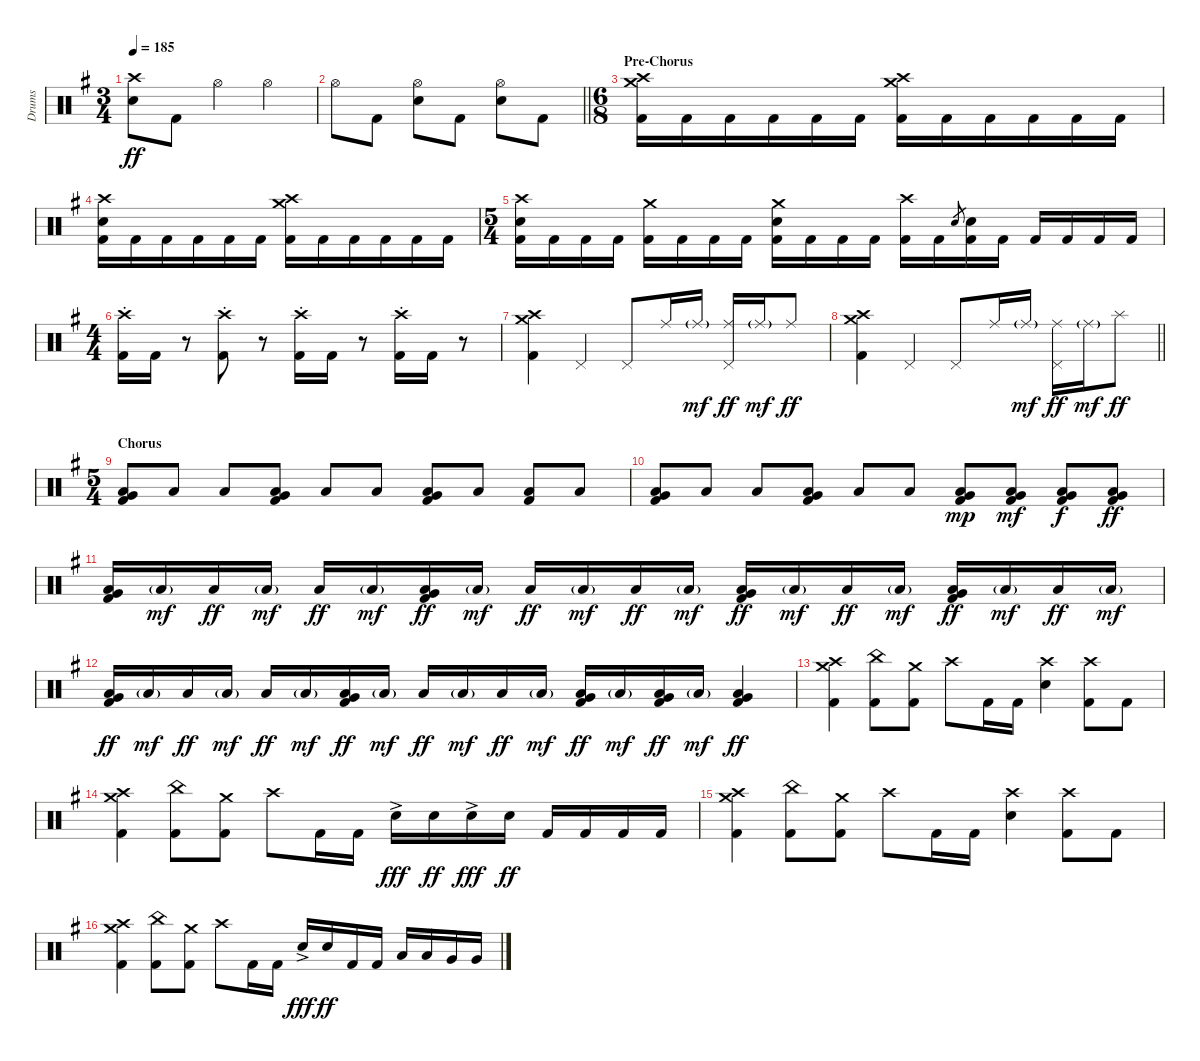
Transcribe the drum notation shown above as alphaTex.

\track ("Drums" "Drums") {instrument percussion}
\staff {score}
\articulation defaults
\ts (3 4)
\tempo 185
\clef neutral
\ks g
("Crash high (hit)" "Electric Snare (hit)").8{dy ff} "Kick (hit) 2".8 "Hi-Hat (open)".4 "Hi-Hat (open)".4 |
\barLineRight lightlight "Hi-Hat (open)".8 "Kick (hit) 2".8
("Hi-Hat (open)" "Electric Snare (hit)").8 "Kick (hit) 2".8 ("Hi-Hat (open)" "Electric Snare (hit)").8 "Kick (hit) 2".8 |
\ts (6 8)
\section ("" "Pre-Chorus")
("Crash medium (hit)" "Crash high (hit)" "Kick (hit) 2").16 "Kick (hit) 2".16 "Kick (hit) 2".16 "Kick (hit) 2".16 "Kick (hit) 2".16 "Kick (hit) 2".16 ("Crash medium (hit)" "Crash high (hit)" "Kick (hit) 2").16 "Kick (hit) 2".16 "Kick (hit) 2".16 "Kick (hit) 2".16 "Kick (hit) 2".16 "Kick (hit) 2".16 |
("Crash high (hit)" "Electric Snare (hit)" "Kick (hit) 2").16 "Kick (hit) 2".16 "Kick (hit) 2".16 "Kick (hit) 2".16 "Kick (hit) 2".16 "Kick (hit) 2".16 ("Crash medium (hit)" "Crash high (hit)" "Kick (hit) 2").16 "Kick (hit) 2".16 "Kick (hit) 2".16 "Kick (hit) 2".16 "Kick (hit) 2".16 "Kick (hit) 2".16 |
\ts (5 4)
("Crash high (hit)" "Electric Snare (hit)" "Kick (hit) 2").16 "Kick (hit) 2".16 "Kick (hit) 2".16 "Kick (hit) 2".16 ("Crash medium (hit)" "Kick (hit) 2").16 "Kick (hit) 2".16 "Kick (hit) 2".16 "Kick (hit) 2".16 ("Crash medium (hit)" "Electric Snare (hit)" "Kick (hit) 2").16 "Kick (hit) 2".16 "Kick (hit) 2".16 "Kick (hit) 2".16 ("Crash high (hit)" "Kick (hit) 2").16 "Kick (hit) 2".16 "Electric Snare (hit)".8{gr} ("Electric Snare (hit)" "Kick (hit) 2").16 "Kick (hit) 2".16 "Kick (hit) 2".16 "Kick (hit) 2".16 "Kick (hit) 2".16 "Kick (hit) 2".16 |
\ts (4 4)
("Crash high (hit)"{st} "Kick (hit) 2").16 "Kick (hit) 2".16 r.8{volume 0} ("Crash high (hit)"{st} "Kick (hit) 2").8{volume 14} r.8{volume 0} ("Crash high (hit)"{st} "Kick (hit) 2").16{volume 14} "Kick (hit) 2".16 r.8{volume 0} ("Crash high (hit)"{st} "Kick (hit) 2").16{volume 14} "Kick (hit) 2".16 r.8{volume 0} |
("Crash medium (hit)" "Crash high (hit)" "Kick (hit) 2").4{volume 14} "Pedal Hi-Hat (hit)".4 "Pedal Hi-Hat (hit)".8 "Ride (middle)".16 "Ride (middle)"{g}.16{dy mf} ("Ride (middle)" "Pedal Hi-Hat (hit)").16{dy ff} "Ride (middle)"{g}.16{dy mf} "Ride (middle)".8{dy ff} |
\barLineRight lightlight
("Crash medium (hit)" "Crash high (hit)" "Kick (hit) 2").4 "Pedal Hi-Hat (hit)".4 "Pedal Hi-Hat (hit)".8 "Ride (middle)".16 "Ride (middle)"{g}.16{dy mf} ("Ride (middle)" "Pedal Hi-Hat (hit)").16{dy ff} "Ride (middle)"{g}.16{dy mf} "Splash (hit)".8{dy ff} |
\ts (5 4)
\section ("" "Chorus")
("Low Tom (hit)" "Very Low Tom (hit)" "Kick (hit) 2").8{volume 12} "Low Tom (hit)".8 "Low Tom (hit)".8 ("Low Tom (hit)" "Very Low Tom (hit)" "Kick (hit) 2").8 "Low Tom (hit)".8 "Low Tom (hit)".8 ("Low Tom (hit)" "Very Low Tom (hit)" "Kick (hit) 2").8 "Low Tom (hit)".8 ("Low Tom (hit)" "Kick (hit) 2").8 "Low Tom (hit)".8 |
("Low Tom (hit)" "Very Low Tom (hit)" "Kick (hit) 2").8 "Low Tom (hit)".8 "Low Tom (hit)".8 ("Low Tom (hit)" "Very Low Tom (hit)" "Kick (hit) 2").8 "Low Tom (hit)".8 "Low Tom (hit)".8 ("Low Tom (hit)" "Very Low Tom (hit)" "Kick (hit) 2").8{dy mp} ("Low Tom (hit)" "Very Low Tom (hit)" "Kick (hit) 2").8{dy mf} ("Low Tom (hit)" "Very Low Tom (hit)" "Kick (hit) 2").8{dy f} ("Low Tom (hit)" "Very Low Tom (hit)" "Kick (hit) 2").8{dy ff} |
("Low Tom (hit)" "Very Low Tom (hit)" "Kick (hit) 2").16 "Low Tom (hit)"{g}.16{dy mf} "Low Tom (hit)".16{dy ff} "Low Tom (hit)"{g}.16{dy mf} "Low Tom (hit)".16{dy ff} "Low Tom (hit)"{g}.16{dy mf} ("Low Tom (hit)" "Very Low Tom (hit)" "Kick (hit) 2").16{dy ff} "Low Tom (hit)"{g}.16{dy mf} "Low Tom (hit)".16{dy ff} "Low Tom (hit)"{g}.16{dy mf} "Low Tom (hit)".16{dy ff} "Low Tom (hit)"{g}.16{dy mf} ("Low Tom (hit)" "Very Low Tom (hit)" "Kick (hit) 2").16{dy ff} "Low Tom (hit)"{g}.16{dy mf} "Low Tom (hit)".16{dy ff} "Low Tom (hit)"{g}.16{dy mf} ("Low Tom (hit)" "Very Low Tom (hit)" "Kick (hit) 2").16{dy ff} "Low Tom (hit)"{g}.16{dy mf} "Low Tom (hit)".16{dy ff} "Low Tom (hit)"{g}.16{dy mf} |
("Low Tom (hit)" "Very Low Tom (hit)" "Kick (hit) 2").16{dy ff} "Low Tom (hit)"{g}.16{dy mf} "Low Tom (hit)".16{dy ff} "Low Tom (hit)"{g}.16{dy mf} "Low Tom (hit)".16{dy ff} "Low Tom (hit)"{g}.16{dy mf} ("Low Tom (hit)" "Very Low Tom (hit)" "Kick (hit) 2").16{dy ff} "Low Tom (hit)"{g}.16{dy mf} "Low Tom (hit)".16{dy ff} "Low Tom (hit)"{g}.16{dy mf} "Low Tom (hit)".16{dy ff} "Low Tom (hit)"{g}.16{dy mf} ("Low Tom (hit)" "Very Low Tom (hit)" "Kick (hit) 2").16{dy ff} "Low Tom (hit)"{g}.16{dy mf} ("Low Tom (hit)" "Very Low Tom (hit)" "Kick (hit) 2").16{dy ff} "Low Tom (hit)"{g}.16{dy mf} ("Low Tom (hit)" "Very Low Tom (hit)" "Kick (hit) 2").4{dy ff} |
("Crash medium (hit)" "Crash high (hit)" "Kick (hit) 2").4{volume 14} ("China (hit)" "Kick (hit) 2").8 ("Crash medium (hit)" "Kick (hit) 2").8 "Crash high (hit)".8 "Kick (hit) 2".16 "Kick (hit) 2".16 ("Crash high (hit)" "Electric Snare (hit)").4 ("Crash high (hit)" "Kick (hit) 2").8 "Kick (hit) 2".8 |
("Crash medium (hit)" "Crash high (hit)" "Kick (hit) 2").4 ("China (hit)" "Kick (hit) 2").8 ("Crash medium (hit)" "Kick (hit) 2").8 "Crash high (hit)".8 "Kick (hit) 2".16 "Kick (hit) 2".16 "Electric Snare (hit)"{ac}.16{dy fff} "Electric Snare (hit)".16{dy ff} "Electric Snare (hit)"{ac}.16{dy fff} "Electric Snare (hit)".16{dy ff} "Kick (hit) 2".16 "Kick (hit) 2".16 "Kick (hit) 2".16 "Kick (hit) 2".16 |
("Crash medium (hit)" "Crash high (hit)" "Kick (hit) 2").4 ("China (hit)" "Kick (hit) 2").8 ("Crash medium (hit)" "Kick (hit) 2").8 "Crash high (hit)".8 "Kick (hit) 2".16 "Kick (hit) 2".16 ("Crash high (hit)" "Electric Snare (hit)").4 ("Crash high (hit)" "Kick (hit) 2").8 "Kick (hit) 2".8 |
("Crash medium (hit)" "Crash high (hit)" "Kick (hit) 2").4 ("China (hit)" "Kick (hit) 2").8 ("Crash medium (hit)" "Kick (hit) 2").8 "Crash high (hit)".8 "Kick (hit) 2".16 "Kick (hit) 2".16 "Electric Snare (hit)"{ac}.16{dy fff} "Electric Snare (hit)".16{dy ff} "Kick (hit) 2".16 "Kick (hit) 2".16 "Low Tom (hit)".16 "Low Tom (hit)".16 "Very Low Tom (hit)".16 "Very Low Tom (hit)".16
